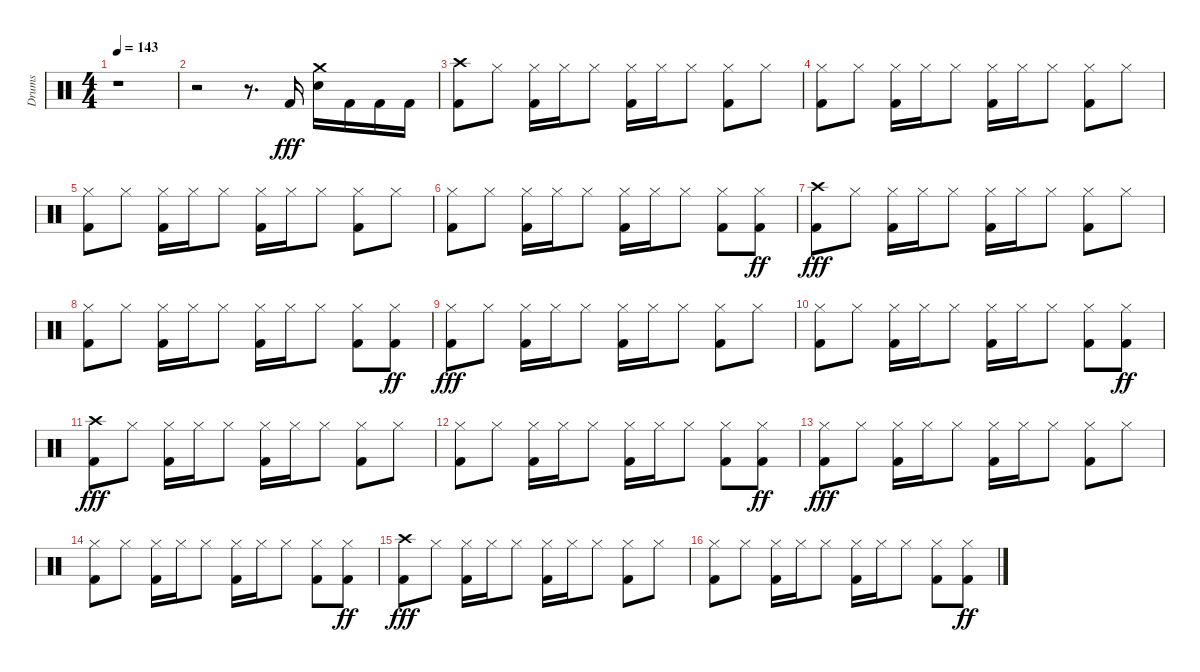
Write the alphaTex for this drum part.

\track ("Drums" "Drums") {instrument percussion}
\staff {score}
\articulation defaults
\ts (4 4)
\tempo 143
\clef neutral
\ks aminor
r.1{dy fff} |
r.2 r.8{d} "Kick (hit) 2".16 ("Snare (hit) 2" "Crash medium (hit)").16 "Kick (hit) 2".16 "Kick (hit) 2".16 "Kick (hit) 2".16 |
("Kick (hit) 2" "Crash high (hit)").8 "Hi-Hat (closed)".8 ("Kick (hit) 2" "Hi-Hat (closed)").16 "Hi-Hat (closed)".16 "Hi-Hat (closed)".8 ("Kick (hit) 2" "Hi-Hat (closed)").16 "Hi-Hat (closed)".16 "Hi-Hat (closed)".8 ("Kick (hit) 2" "Hi-Hat (closed)").8 "Hi-Hat (closed)".8 |
("Kick (hit) 2" "Hi-Hat (closed)").8 "Hi-Hat (closed)".8 ("Kick (hit) 2" "Hi-Hat (closed)").16 "Hi-Hat (closed)".16 "Hi-Hat (closed)".8 ("Kick (hit) 2" "Hi-Hat (closed)").16 "Hi-Hat (closed)".16 "Hi-Hat (closed)".8 ("Kick (hit) 2" "Hi-Hat (closed)").8 "Hi-Hat (closed)".8 |
("Kick (hit) 2" "Hi-Hat (closed)").8 "Hi-Hat (closed)".8 ("Kick (hit) 2" "Hi-Hat (closed)").16 "Hi-Hat (closed)".16 "Hi-Hat (closed)".8 ("Kick (hit) 2" "Hi-Hat (closed)").16 "Hi-Hat (closed)".16 "Hi-Hat (closed)".8 ("Kick (hit) 2" "Hi-Hat (closed)").8 "Hi-Hat (closed)".8 |
("Kick (hit) 2" "Hi-Hat (closed)").8 "Hi-Hat (closed)".8 ("Kick (hit) 2" "Hi-Hat (closed)").16 "Hi-Hat (closed)".16 "Hi-Hat (closed)".8 ("Kick (hit) 2" "Hi-Hat (closed)").16 "Hi-Hat (closed)".16 "Hi-Hat (closed)".8 ("Kick (hit) 2" "Hi-Hat (closed)").8 ("Kick (hit) 2" "Hi-Hat (closed)").8{dy ff} |
("Kick (hit) 2" "Crash high (hit)").8{dy fff} "Hi-Hat (closed)".8 ("Kick (hit) 2" "Hi-Hat (closed)").16 "Hi-Hat (closed)".16 "Hi-Hat (closed)".8 ("Kick (hit) 2" "Hi-Hat (closed)").16 "Hi-Hat (closed)".16 "Hi-Hat (closed)".8 ("Kick (hit) 2" "Hi-Hat (closed)").8 "Hi-Hat (closed)".8 |
("Kick (hit) 2" "Hi-Hat (closed)").8 "Hi-Hat (closed)".8 ("Kick (hit) 2" "Hi-Hat (closed)").16 "Hi-Hat (closed)".16 "Hi-Hat (closed)".8 ("Kick (hit) 2" "Hi-Hat (closed)").16 "Hi-Hat (closed)".16 "Hi-Hat (closed)".8 ("Kick (hit) 2" "Hi-Hat (closed)").8 ("Kick (hit) 2" "Hi-Hat (closed)").8{dy ff} |
("Kick (hit) 2" "Hi-Hat (closed)").8{dy fff} "Hi-Hat (closed)".8 ("Kick (hit) 2" "Hi-Hat (closed)").16 "Hi-Hat (closed)".16 "Hi-Hat (closed)".8 ("Kick (hit) 2" "Hi-Hat (closed)").16 "Hi-Hat (closed)".16 "Hi-Hat (closed)".8 ("Kick (hit) 2" "Hi-Hat (closed)").8 "Hi-Hat (closed)".8 |
("Kick (hit) 2" "Hi-Hat (closed)").8 "Hi-Hat (closed)".8 ("Kick (hit) 2" "Hi-Hat (closed)").16 "Hi-Hat (closed)".16 "Hi-Hat (closed)".8 ("Kick (hit) 2" "Hi-Hat (closed)").16 "Hi-Hat (closed)".16 "Hi-Hat (closed)".8 ("Kick (hit) 2" "Hi-Hat (closed)").8 ("Kick (hit) 2" "Hi-Hat (closed)").8{dy ff} |
("Kick (hit) 2" "Crash high (hit)").8{dy fff} "Hi-Hat (closed)".8 ("Kick (hit) 2" "Hi-Hat (closed)").16 "Hi-Hat (closed)".16 "Hi-Hat (closed)".8 ("Kick (hit) 2" "Hi-Hat (closed)").16 "Hi-Hat (closed)".16 "Hi-Hat (closed)".8 ("Kick (hit) 2" "Hi-Hat (closed)").8 "Hi-Hat (closed)".8 |
("Kick (hit) 2" "Hi-Hat (closed)").8 "Hi-Hat (closed)".8 ("Kick (hit) 2" "Hi-Hat (closed)").16 "Hi-Hat (closed)".16 "Hi-Hat (closed)".8 ("Kick (hit) 2" "Hi-Hat (closed)").16 "Hi-Hat (closed)".16 "Hi-Hat (closed)".8 ("Kick (hit) 2" "Hi-Hat (closed)").8 ("Kick (hit) 2" "Hi-Hat (closed)").8{dy ff} |
("Kick (hit) 2" "Hi-Hat (closed)").8{dy fff} "Hi-Hat (closed)".8 ("Kick (hit) 2" "Hi-Hat (closed)").16 "Hi-Hat (closed)".16 "Hi-Hat (closed)".8 ("Kick (hit) 2" "Hi-Hat (closed)").16 "Hi-Hat (closed)".16 "Hi-Hat (closed)".8 ("Kick (hit) 2" "Hi-Hat (closed)").8 "Hi-Hat (closed)".8 |
("Kick (hit) 2" "Hi-Hat (closed)").8 "Hi-Hat (closed)".8 ("Kick (hit) 2" "Hi-Hat (closed)").16 "Hi-Hat (closed)".16 "Hi-Hat (closed)".8 ("Kick (hit) 2" "Hi-Hat (closed)").16 "Hi-Hat (closed)".16 "Hi-Hat (closed)".8 ("Kick (hit) 2" "Hi-Hat (closed)").8 ("Kick (hit) 2" "Hi-Hat (closed)").8{dy ff} |
("Kick (hit) 2" "Crash high (hit)").8{dy fff} "Hi-Hat (closed)".8 ("Kick (hit) 2" "Hi-Hat (closed)").16 "Hi-Hat (closed)".16 "Hi-Hat (closed)".8 ("Kick (hit) 2" "Hi-Hat (closed)").16 "Hi-Hat (closed)".16 "Hi-Hat (closed)".8 ("Kick (hit) 2" "Hi-Hat (closed)").8 "Hi-Hat (closed)".8 |
("Kick (hit) 2" "Hi-Hat (closed)").8 "Hi-Hat (closed)".8 ("Kick (hit) 2" "Hi-Hat (closed)").16 "Hi-Hat (closed)".16 "Hi-Hat (closed)".8 ("Kick (hit) 2" "Hi-Hat (closed)").16 "Hi-Hat (closed)".16 "Hi-Hat (closed)".8 ("Kick (hit) 2" "Hi-Hat (closed)").8 ("Kick (hit) 2" "Hi-Hat (closed)").8{dy ff}
